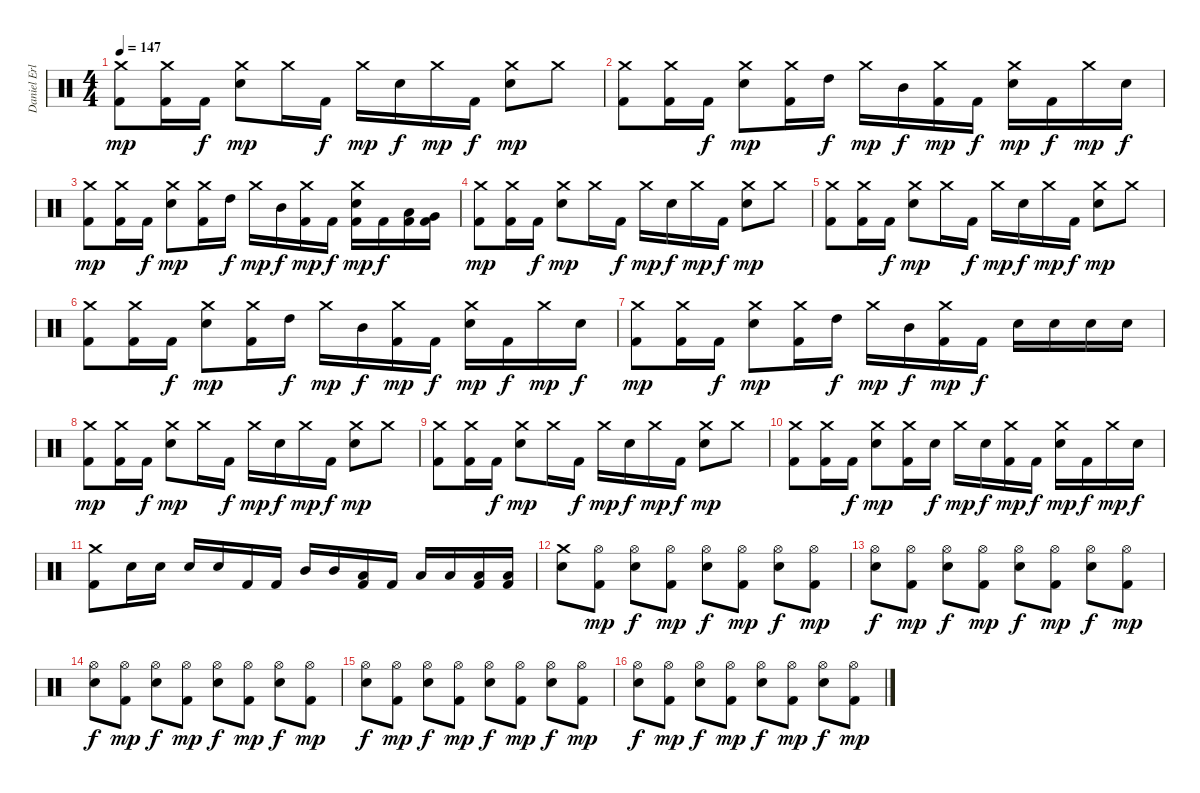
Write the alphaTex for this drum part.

\track ("Daniel Erlandsson" "Daniel Erl") {instrument percussion}
\staff {score}
\articulation defaults
\ts (4 4)
\tempo 147
\clef neutral
\ks c
("Crash medium (hit)" "Kick (hit) 2").8{dy mp} ("Crash medium (hit)" "Kick (hit) 2").16 "Kick (hit) 2".16{dy f} ("Crash medium (hit)" "Electric Snare (hit)").8{dy mp} "Crash medium (hit)".16 "Kick (hit) 2".16{dy f} "Crash medium (hit)".16{dy mp} "Electric Snare (hit)".16{dy f} "Crash medium (hit)".16{dy mp} "Kick (hit) 2".16{dy f} ("Crash medium (hit)" "Electric Snare (hit)").8{dy mp} "Crash medium (hit)".8 |
("Crash medium (hit)" "Kick (hit) 2").8 ("Crash medium (hit)" "Kick (hit) 2").16 "Kick (hit) 2".16{dy f} ("Crash medium (hit)" "Electric Snare (hit)").8{dy mp} ("Crash medium (hit)" "Kick (hit) 2").16 "High Tom (hit)".16{dy f} "Crash medium (hit)".16{dy mp} "Mid Tom (hit)".16{dy f} ("Crash medium (hit)" "Kick (hit) 2").16{dy mp} "Kick (hit) 2".16{dy f} ("Crash medium (hit)" "Electric Snare (hit)").16{dy mp} "Kick (hit) 2".16{dy f} "Crash medium (hit)".16{dy mp} "Electric Snare (hit)".16{dy f} |
("Crash medium (hit)" "Kick (hit) 2").8{dy mp} ("Crash medium (hit)" "Kick (hit) 2").16 "Kick (hit) 2".16{dy f} ("Crash medium (hit)" "Electric Snare (hit)").8{dy mp} ("Crash medium (hit)" "Kick (hit) 2").16 "High Tom (hit)".16{dy f} "Crash medium (hit)".16{dy mp} "Mid Tom (hit)".16{dy f} ("Crash medium (hit)" "Kick (hit) 2").16{dy mp} "Kick (hit) 2".16{dy f} ("Crash medium (hit)" "Electric Snare (hit)" "Kick (hit) 2").16{dy mp} "Kick (hit) 2".16{dy f} ("Low Tom (hit)" "Kick (hit) 2").16 ("Very Low Tom (hit)" "Kick (hit) 2").16 |
("Crash medium (hit)" "Kick (hit) 2").8{dy mp} ("Crash medium (hit)" "Kick (hit) 2").16 "Kick (hit) 2".16{dy f} ("Crash medium (hit)" "Electric Snare (hit)").8{dy mp} "Crash medium (hit)".16 "Kick (hit) 2".16{dy f} "Crash medium (hit)".16{dy mp} "Electric Snare (hit)".16{dy f} "Crash medium (hit)".16{dy mp} "Kick (hit) 2".16{dy f} ("Crash medium (hit)" "Electric Snare (hit)").8{dy mp} "Crash medium (hit)".8 |
("Crash medium (hit)" "Kick (hit) 2").8 ("Crash medium (hit)" "Kick (hit) 2").16 "Kick (hit) 2".16{dy f} ("Crash medium (hit)" "Electric Snare (hit)").8{dy mp} "Crash medium (hit)".16 "Kick (hit) 2".16{dy f} "Crash medium (hit)".16{dy mp} "Electric Snare (hit)".16{dy f} "Crash medium (hit)".16{dy mp} "Kick (hit) 2".16{dy f} ("Crash medium (hit)" "Electric Snare (hit)").8{dy mp} "Crash medium (hit)".8 |
("Crash medium (hit)" "Kick (hit) 2").8 ("Crash medium (hit)" "Kick (hit) 2").16 "Kick (hit) 2".16{dy f} ("Crash medium (hit)" "Electric Snare (hit)").8{dy mp} ("Crash medium (hit)" "Kick (hit) 2").16 "High Tom (hit)".16{dy f} "Crash medium (hit)".16{dy mp} "Mid Tom (hit)".16{dy f} ("Crash medium (hit)" "Kick (hit) 2").16{dy mp} "Kick (hit) 2".16{dy f} ("Crash medium (hit)" "Electric Snare (hit)").16{dy mp} "Kick (hit) 2".16{dy f} "Crash medium (hit)".16{dy mp} "Electric Snare (hit)".16{dy f} |
("Crash medium (hit)" "Kick (hit) 2").8{dy mp} ("Crash medium (hit)" "Kick (hit) 2").16 "Kick (hit) 2".16{dy f} ("Crash medium (hit)" "Electric Snare (hit)").8{dy mp} ("Crash medium (hit)" "Kick (hit) 2").16 "High Tom (hit)".16{dy f} "Crash medium (hit)".16{dy mp} "Mid Tom (hit)".16{dy f} ("Crash medium (hit)" "Kick (hit) 2").16{dy mp} "Kick (hit) 2".16{dy f} "Electric Snare (hit)".16 "Electric Snare (hit)".16 "Electric Snare (hit)".16 "Electric Snare (hit)".16 |
("Crash medium (hit)" "Kick (hit) 2").8{dy mp} ("Crash medium (hit)" "Kick (hit) 2").16 "Kick (hit) 2".16{dy f} ("Crash medium (hit)" "Electric Snare (hit)").8{dy mp} "Crash medium (hit)".16 "Kick (hit) 2".16{dy f} "Crash medium (hit)".16{dy mp} "Electric Snare (hit)".16{dy f} "Crash medium (hit)".16{dy mp} "Kick (hit) 2".16{dy f} ("Crash medium (hit)" "Electric Snare (hit)").8{dy mp} "Crash medium (hit)".8 |
("Crash medium (hit)" "Kick (hit) 2").8 ("Crash medium (hit)" "Kick (hit) 2").16 "Kick (hit) 2".16{dy f} ("Crash medium (hit)" "Electric Snare (hit)").8{dy mp} "Crash medium (hit)".16 "Kick (hit) 2".16{dy f} "Crash medium (hit)".16{dy mp} "Electric Snare (hit)".16{dy f} "Crash medium (hit)".16{dy mp} "Kick (hit) 2".16{dy f} ("Crash medium (hit)" "Electric Snare (hit)").8{dy mp} "Crash medium (hit)".8 |
("Crash medium (hit)" "Kick (hit) 2").8 ("Crash medium (hit)" "Kick (hit) 2").16 "Kick (hit) 2".16{dy f} ("Crash medium (hit)" "Electric Snare (hit)").8{dy mp} ("Crash medium (hit)" "Kick (hit) 2").16 "Electric Snare (hit)".16{dy f} "Crash medium (hit)".16{dy mp} "Electric Snare (hit)".16{dy f} ("Crash medium (hit)" "Kick (hit) 2").16{dy mp} "Kick (hit) 2".16{dy f} ("Crash medium (hit)" "Electric Snare (hit)").16{dy mp} "Kick (hit) 2".16{dy f} "Crash medium (hit)".16{dy mp} "Electric Snare (hit)".16{dy f} |
("Crash medium (hit)" "Kick (hit) 2").8 "Electric Snare (hit)".16 "Electric Snare (hit)".16 "Electric Snare (hit)".16 "Electric Snare (hit)".16 "Kick (hit) 2".16 "Kick (hit) 2".16 "Mid Tom (hit)".16 "Mid Tom (hit)".16 ("Low Tom (hit)" "Kick (hit) 2").16 "Kick (hit) 2".16 "Low Tom (hit)".16 "Low Tom (hit)".16 ("Low Tom (hit)" "Kick (hit) 2").16 ("Low Tom (hit)" "Kick (hit) 2").16 |
("Crash medium (hit)" "Electric Snare (hit)").8 ("Hi-Hat (open)" "Kick (hit) 2").8{dy mp} ("Hi-Hat (open)" "Electric Snare (hit)").8{dy f} ("Hi-Hat (open)" "Kick (hit) 2").8{dy mp} ("Hi-Hat (open)" "Electric Snare (hit)").8{dy f} ("Hi-Hat (open)" "Kick (hit) 2").8{dy mp} ("Hi-Hat (open)" "Electric Snare (hit)").8{dy f} ("Hi-Hat (open)" "Kick (hit) 2").8{dy mp} |
("Hi-Hat (open)" "Electric Snare (hit)").8{dy f} ("Hi-Hat (open)" "Kick (hit) 2").8{dy mp} ("Hi-Hat (open)" "Electric Snare (hit)").8{dy f} ("Hi-Hat (open)" "Kick (hit) 2").8{dy mp} ("Hi-Hat (open)" "Electric Snare (hit)").8{dy f} ("Hi-Hat (open)" "Kick (hit) 2").8{dy mp} ("Hi-Hat (open)" "Electric Snare (hit)").8{dy f} ("Hi-Hat (open)" "Kick (hit) 2").8{dy mp} |
("Hi-Hat (open)" "Electric Snare (hit)").8{dy f} ("Hi-Hat (open)" "Kick (hit) 2").8{dy mp} ("Hi-Hat (open)" "Electric Snare (hit)").8{dy f} ("Hi-Hat (open)" "Kick (hit) 2").8{dy mp} ("Hi-Hat (open)" "Electric Snare (hit)").8{dy f} ("Hi-Hat (open)" "Kick (hit) 2").8{dy mp} ("Hi-Hat (open)" "Electric Snare (hit)").8{dy f} ("Hi-Hat (open)" "Kick (hit) 2").8{dy mp} |
("Hi-Hat (open)" "Electric Snare (hit)").8{dy f} ("Hi-Hat (open)" "Kick (hit) 2").8{dy mp} ("Hi-Hat (open)" "Electric Snare (hit)").8{dy f} ("Hi-Hat (open)" "Kick (hit) 2").8{dy mp} ("Hi-Hat (open)" "Electric Snare (hit)").8{dy f} ("Hi-Hat (open)" "Kick (hit) 2").8{dy mp} ("Hi-Hat (open)" "Electric Snare (hit)").8{dy f} ("Hi-Hat (open)" "Kick (hit) 2").8{dy mp} |
("Hi-Hat (open)" "Electric Snare (hit)").8{dy f} ("Hi-Hat (open)" "Kick (hit) 2").8{dy mp} ("Hi-Hat (open)" "Electric Snare (hit)").8{dy f} ("Hi-Hat (open)" "Kick (hit) 2").8{dy mp} ("Hi-Hat (open)" "Electric Snare (hit)").8{dy f} ("Hi-Hat (open)" "Kick (hit) 2").8{dy mp} ("Hi-Hat (open)" "Electric Snare (hit)").8{dy f} ("Hi-Hat (open)" "Kick (hit) 2").8{dy mp}
